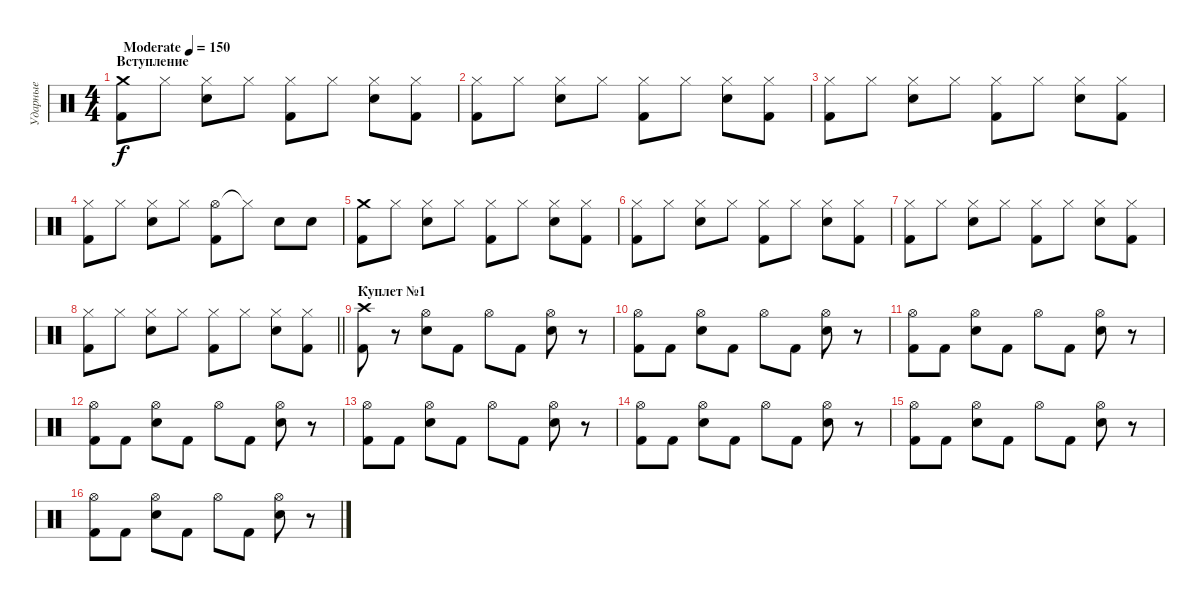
\track ("Ударные" "Ударные") {instrument percussion}
\staff {score}
\articulation defaults
\ts (4 4)
\section ("" "Вступление")
\tempo (150 "Moderate")
\clef neutral
\ks c
("Crash medium (hit)" "Kick (hit) 2").8{dy f} "Hi-Hat (closed)".8 ("Hi-Hat (closed)" "Electric Snare (hit)").8 "Hi-Hat (closed)".8 ("Hi-Hat (closed)" "Kick (hit) 2").8 "Hi-Hat (closed)".8 ("Hi-Hat (closed)" "Electric Snare (hit)").8 ("Hi-Hat (closed)" "Kick (hit) 2").8 |
("Hi-Hat (closed)" "Kick (hit) 2").8 "Hi-Hat (closed)".8 ("Hi-Hat (closed)" "Electric Snare (hit)").8 "Hi-Hat (closed)".8 ("Hi-Hat (closed)" "Kick (hit) 2").8 "Hi-Hat (closed)".8 ("Hi-Hat (closed)" "Electric Snare (hit)").8 ("Hi-Hat (closed)" "Kick (hit) 2").8 |
("Hi-Hat (closed)" "Kick (hit) 2").8 "Hi-Hat (closed)".8 ("Hi-Hat (closed)" "Electric Snare (hit)").8 "Hi-Hat (closed)".8 ("Hi-Hat (closed)" "Kick (hit) 2").8 "Hi-Hat (closed)".8 ("Hi-Hat (closed)" "Electric Snare (hit)").8 ("Hi-Hat (closed)" "Kick (hit) 2").8 |
("Hi-Hat (closed)" "Kick (hit) 2").8 "Hi-Hat (closed)".8 ("Hi-Hat (closed)" "Electric Snare (hit)").8 "Hi-Hat (closed)".8 ("Hi-Hat (open)" "Kick (hit) 2").8 "Hi-Hat (closed)"{t}.8 "Electric Snare (hit)".8 "Electric Snare (hit)".8 |
("Crash medium (hit)" "Kick (hit) 2").8 "Hi-Hat (closed)".8 ("Hi-Hat (closed)" "Electric Snare (hit)").8 "Hi-Hat (closed)".8 ("Hi-Hat (closed)" "Kick (hit) 2").8 "Hi-Hat (closed)".8 ("Hi-Hat (closed)" "Electric Snare (hit)").8 ("Hi-Hat (closed)" "Kick (hit) 2").8 |
("Hi-Hat (closed)" "Kick (hit) 2").8 "Hi-Hat (closed)".8 ("Hi-Hat (closed)" "Electric Snare (hit)").8 "Hi-Hat (closed)".8 ("Hi-Hat (closed)" "Kick (hit) 2").8 "Hi-Hat (closed)".8 ("Hi-Hat (closed)" "Electric Snare (hit)").8 ("Hi-Hat (closed)" "Kick (hit) 2").8 |
("Hi-Hat (closed)" "Kick (hit) 2").8 "Hi-Hat (closed)".8 ("Hi-Hat (closed)" "Electric Snare (hit)").8 "Hi-Hat (closed)".8 ("Hi-Hat (closed)" "Kick (hit) 2").8 "Hi-Hat (closed)".8 ("Hi-Hat (closed)" "Electric Snare (hit)").8 ("Hi-Hat (closed)" "Kick (hit) 2").8 |
\barLineRight lightlight
("Hi-Hat (closed)" "Kick (hit) 2").8 "Hi-Hat (closed)".8 ("Hi-Hat (closed)" "Electric Snare (hit)").8 "Hi-Hat (closed)".8 ("Hi-Hat (closed)" "Kick (hit) 2").8 "Hi-Hat (closed)".8 ("Hi-Hat (closed)" "Electric Snare (hit)").8 ("Hi-Hat (closed)" "Kick (hit) 2").8 |
\section ("" "Куплет №1")
("Crash high (hit)" "Kick (hit) 2").8 r.8 ("Hi-Hat (open)" "Electric Snare (hit)").8 "Kick (hit) 2".8 "Hi-Hat (open)".8 "Kick (hit) 2".8 ("Hi-Hat (open)" "Electric Snare (hit)").8 r.8 |
("Hi-Hat (open)" "Kick (hit) 2").8 "Kick (hit) 2".8 ("Hi-Hat (open)" "Electric Snare (hit)").8 "Kick (hit) 2".8 "Hi-Hat (open)".8 "Kick (hit) 2".8 ("Hi-Hat (open)" "Electric Snare (hit)").8 r.8 |
("Hi-Hat (open)" "Kick (hit) 2").8 "Kick (hit) 2".8 ("Hi-Hat (open)" "Electric Snare (hit)").8 "Kick (hit) 2".8 "Hi-Hat (open)".8 "Kick (hit) 2".8 ("Hi-Hat (open)" "Electric Snare (hit)").8 r.8 |
("Hi-Hat (open)" "Kick (hit) 2").8 "Kick (hit) 2".8 ("Hi-Hat (open)" "Electric Snare (hit)").8 "Kick (hit) 2".8 "Hi-Hat (open)".8 "Kick (hit) 2".8 ("Hi-Hat (open)" "Electric Snare (hit)").8 r.8 |
("Hi-Hat (open)" "Kick (hit) 2").8 "Kick (hit) 2".8 ("Hi-Hat (open)" "Electric Snare (hit)").8 "Kick (hit) 2".8 "Hi-Hat (open)".8 "Kick (hit) 2".8 ("Hi-Hat (open)" "Electric Snare (hit)").8 r.8 |
("Hi-Hat (open)" "Kick (hit) 2").8 "Kick (hit) 2".8 ("Hi-Hat (open)" "Electric Snare (hit)").8 "Kick (hit) 2".8 "Hi-Hat (open)".8 "Kick (hit) 2".8 ("Hi-Hat (open)" "Electric Snare (hit)").8 r.8 |
("Hi-Hat (open)" "Kick (hit) 2").8 "Kick (hit) 2".8 ("Hi-Hat (open)" "Electric Snare (hit)").8 "Kick (hit) 2".8 "Hi-Hat (open)".8 "Kick (hit) 2".8 ("Hi-Hat (open)" "Electric Snare (hit)").8 r.8 |
("Hi-Hat (open)" "Kick (hit) 2").8 "Kick (hit) 2".8 ("Hi-Hat (open)" "Electric Snare (hit)").8 "Kick (hit) 2".8 "Hi-Hat (open)".8 "Kick (hit) 2".8 ("Hi-Hat (open)" "Electric Snare (hit)").8 r.8
